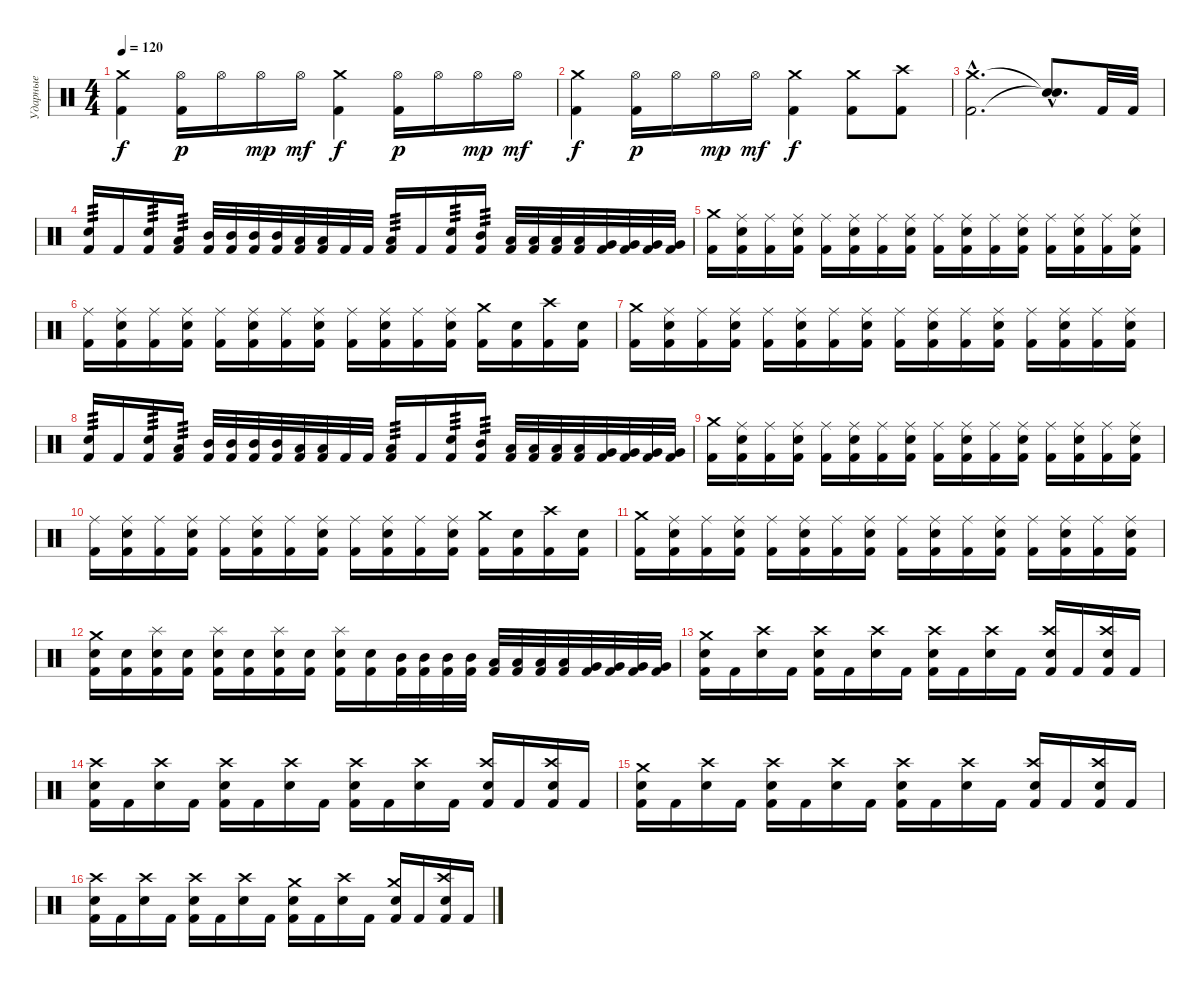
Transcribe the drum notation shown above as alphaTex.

\track ("Ударные" "Ударные") {instrument percussion}
\staff {score}
\articulation defaults
\ts (4 4)
\tempo 120
\clef neutral
\ks c
("Kick (hit) 2" "Crash medium (hit)").4{dy f} ("Kick (hit) 2" "Hi-Hat (open)").16{dy p} "Hi-Hat (open)".16 "Hi-Hat (open)".16{dy mp} "Hi-Hat (open)".16{dy mf} ("Kick (hit) 2" "Crash medium (hit)").4{dy f} ("Kick (hit) 2" "Hi-Hat (open)").16{dy p} "Hi-Hat (open)".16 "Hi-Hat (open)".16{dy mp} "Hi-Hat (open)".16{dy mf} |
("Kick (hit) 2" "Crash medium (hit)").4{dy f} ("Kick (hit) 2" "Hi-Hat (open)").16{dy p} "Hi-Hat (open)".16 "Hi-Hat (open)".16{dy mp} "Hi-Hat (open)".16{dy mf} ("Kick (hit) 2" "Crash medium (hit)").4{dy f} ("Kick (hit) 2" "Crash medium (hit)").8 ("Kick (hit) 2" "Crash high (hit)").8 |
("Kick (hit) 2"{hac} "Crash medium (hit)"{hac}).2{d} ("Snare (hit)"{hac t} "Snare (hit)"{hac t}).8{d} "Kick (hit) 2".32 "Kick (hit) 2".32 |
("Kick (hit) 2" "Electric Snare (hit)").16{tp 3} "Kick (hit) 2".16 ("Kick (hit) 2" "Electric Snare (hit)").16{tp 3} ("Kick (hit) 2" "Low Tom (hit)").16{tp 3} ("Kick (hit) 2" "Mid Tom (hit)").32 ("Kick (hit) 2" "Mid Tom (hit)").32 ("Kick (hit) 2" "Mid Tom (hit)").32 ("Kick (hit) 2" "Mid Tom (hit)").32 ("Kick (hit) 2" "Low Tom (hit)").32 ("Kick (hit) 2" "Low Tom (hit)").32 "Kick (hit) 2".32 "Kick (hit) 2".32 ("Kick (hit) 2" "Low Tom (hit)").16{tp 3} "Kick (hit) 2".16 ("Kick (hit) 2" "Electric Snare (hit)").16{tp 3} ("Kick (hit) 2" "Mid Tom (hit)").16{tp 3} ("Kick (hit) 2" "Low Tom (hit)").32 ("Kick (hit) 2" "Low Tom (hit)").32 ("Kick (hit) 2" "Low Tom (hit)").32 ("Kick (hit) 2" "Low Tom (hit)").32 ("Kick (hit) 2" "Very Low Tom (hit)").32 ("Kick (hit) 2" "Very Low Tom (hit)").32 ("Kick (hit) 2" "Very Low Tom (hit)").32 ("Kick (hit) 2" "Very Low Tom (hit)").32 |
("Crash medium (hit)" "Kick (hit) 2").16 ("Ride (middle)" "Electric Snare (hit)" "Kick (hit) 2").16 ("Ride (middle)" "Kick (hit) 2").16 ("Ride (middle)" "Electric Snare (hit)" "Kick (hit) 2").16 ("Ride (middle)" "Kick (hit) 2").16 ("Ride (middle)" "Electric Snare (hit)" "Kick (hit) 2").16 ("Ride (middle)" "Kick (hit) 2").16 ("Ride (middle)" "Electric Snare (hit)" "Kick (hit) 2").16 ("Ride (middle)" "Kick (hit) 2").16 ("Ride (middle)" "Electric Snare (hit)" "Kick (hit) 2").16 ("Ride (middle)" "Kick (hit) 2").16 ("Ride (middle)" "Electric Snare (hit)" "Kick (hit) 2").16 ("Ride (middle)" "Kick (hit) 2").16 ("Ride (middle)" "Electric Snare (hit)" "Kick (hit) 2").16 ("Ride (middle)" "Kick (hit) 2").16 ("Ride (middle)" "Electric Snare (hit)" "Kick (hit) 2").16 |
("Ride (middle)" "Kick (hit) 2").16 ("Ride (middle)" "Electric Snare (hit)" "Kick (hit) 2").16 ("Ride (middle)" "Kick (hit) 2").16 ("Ride (middle)" "Electric Snare (hit)" "Kick (hit) 2").16 ("Ride (middle)" "Kick (hit) 2").16 ("Ride (middle)" "Electric Snare (hit)" "Kick (hit) 2").16 ("Ride (middle)" "Kick (hit) 2").16 ("Ride (middle)" "Electric Snare (hit)" "Kick (hit) 2").16 ("Ride (middle)" "Kick (hit) 2").16 ("Ride (middle)" "Electric Snare (hit)" "Kick (hit) 2").16 ("Ride (middle)" "Kick (hit) 2").16 ("Ride (middle)" "Electric Snare (hit)" "Kick (hit) 2").16 ("Crash medium (hit)" "Kick (hit) 2").16 ("Electric Snare (hit)" "Kick (hit) 2").16 ("Crash high (hit)" "Kick (hit) 2").16 ("Electric Snare (hit)" "Kick (hit) 2").16 |
("Crash medium (hit)" "Kick (hit) 2").16 ("Ride (middle)" "Electric Snare (hit)" "Kick (hit) 2").16 ("Ride (middle)" "Kick (hit) 2").16 ("Ride (middle)" "Electric Snare (hit)" "Kick (hit) 2").16 ("Ride (middle)" "Kick (hit) 2").16 ("Ride (middle)" "Electric Snare (hit)" "Kick (hit) 2").16 ("Ride (middle)" "Kick (hit) 2").16 ("Ride (middle)" "Electric Snare (hit)" "Kick (hit) 2").16 ("Ride (middle)" "Kick (hit) 2").16 ("Ride (middle)" "Electric Snare (hit)" "Kick (hit) 2").16 ("Ride (middle)" "Kick (hit) 2").16 ("Ride (middle)" "Electric Snare (hit)" "Kick (hit) 2").16 ("Ride (middle)" "Kick (hit) 2").16 ("Ride (middle)" "Electric Snare (hit)" "Kick (hit) 2").16 ("Ride (middle)" "Kick (hit) 2").16 ("Ride (middle)" "Electric Snare (hit)" "Kick (hit) 2").16 |
("Kick (hit) 2" "Electric Snare (hit)").16{tp 3} "Kick (hit) 2".16 ("Kick (hit) 2" "Electric Snare (hit)").16{tp 3} ("Kick (hit) 2" "Low Tom (hit)").16{tp 3} ("Kick (hit) 2" "Mid Tom (hit)").32 ("Kick (hit) 2" "Mid Tom (hit)").32 ("Kick (hit) 2" "Mid Tom (hit)").32 ("Kick (hit) 2" "Mid Tom (hit)").32 ("Kick (hit) 2" "Low Tom (hit)").32 ("Kick (hit) 2" "Low Tom (hit)").32 "Kick (hit) 2".32 "Kick (hit) 2".32 ("Kick (hit) 2" "Low Tom (hit)").16{tp 3} "Kick (hit) 2".16 ("Kick (hit) 2" "Electric Snare (hit)").16{tp 3} ("Kick (hit) 2" "Mid Tom (hit)").16{tp 3} ("Kick (hit) 2" "Low Tom (hit)").32 ("Kick (hit) 2" "Low Tom (hit)").32 ("Kick (hit) 2" "Low Tom (hit)").32 ("Kick (hit) 2" "Low Tom (hit)").32 ("Kick (hit) 2" "Very Low Tom (hit)").32 ("Kick (hit) 2" "Very Low Tom (hit)").32 ("Kick (hit) 2" "Very Low Tom (hit)").32 ("Kick (hit) 2" "Very Low Tom (hit)").32 |
("Crash medium (hit)" "Kick (hit) 2").16 ("Ride (middle)" "Electric Snare (hit)" "Kick (hit) 2").16 ("Ride (middle)" "Kick (hit) 2").16 ("Ride (middle)" "Electric Snare (hit)" "Kick (hit) 2").16 ("Ride (middle)" "Kick (hit) 2").16 ("Ride (middle)" "Electric Snare (hit)" "Kick (hit) 2").16 ("Ride (middle)" "Kick (hit) 2").16 ("Ride (middle)" "Electric Snare (hit)" "Kick (hit) 2").16 ("Ride (middle)" "Kick (hit) 2").16 ("Ride (middle)" "Electric Snare (hit)" "Kick (hit) 2").16 ("Ride (middle)" "Kick (hit) 2").16 ("Ride (middle)" "Electric Snare (hit)" "Kick (hit) 2").16 ("Ride (middle)" "Kick (hit) 2").16 ("Ride (middle)" "Electric Snare (hit)" "Kick (hit) 2").16 ("Ride (middle)" "Kick (hit) 2").16 ("Ride (middle)" "Electric Snare (hit)" "Kick (hit) 2").16 |
("Ride (middle)" "Kick (hit) 2").16 ("Ride (middle)" "Electric Snare (hit)" "Kick (hit) 2").16 ("Ride (middle)" "Kick (hit) 2").16 ("Ride (middle)" "Electric Snare (hit)" "Kick (hit) 2").16 ("Ride (middle)" "Kick (hit) 2").16 ("Ride (middle)" "Electric Snare (hit)" "Kick (hit) 2").16 ("Ride (middle)" "Kick (hit) 2").16 ("Ride (middle)" "Electric Snare (hit)" "Kick (hit) 2").16 ("Ride (middle)" "Kick (hit) 2").16 ("Ride (middle)" "Electric Snare (hit)" "Kick (hit) 2").16 ("Ride (middle)" "Kick (hit) 2").16 ("Ride (middle)" "Electric Snare (hit)" "Kick (hit) 2").16 ("Crash medium (hit)" "Kick (hit) 2").16 ("Electric Snare (hit)" "Kick (hit) 2").16 ("Crash high (hit)" "Kick (hit) 2").16 ("Electric Snare (hit)" "Kick (hit) 2").16 |
("Crash medium (hit)" "Kick (hit) 2").16 ("Ride (middle)" "Electric Snare (hit)" "Kick (hit) 2").16 ("Ride (middle)" "Kick (hit) 2").16 ("Ride (middle)" "Electric Snare (hit)" "Kick (hit) 2").16 ("Ride (middle)" "Kick (hit) 2").16 ("Ride (middle)" "Electric Snare (hit)" "Kick (hit) 2").16 ("Ride (middle)" "Kick (hit) 2").16 ("Ride (middle)" "Electric Snare (hit)" "Kick (hit) 2").16 ("Ride (middle)" "Kick (hit) 2").16 ("Ride (middle)" "Electric Snare (hit)" "Kick (hit) 2").16 ("Ride (middle)" "Kick (hit) 2").16 ("Ride (middle)" "Electric Snare (hit)" "Kick (hit) 2").16 ("Ride (middle)" "Kick (hit) 2").16 ("Ride (middle)" "Electric Snare (hit)" "Kick (hit) 2").16 ("Ride (middle)" "Kick (hit) 2").16 ("Ride (middle)" "Electric Snare (hit)" "Kick (hit) 2").16 |
("Crash medium (hit)" "Electric Snare (hit)" "Kick (hit) 2").16 ("Electric Snare (hit)" "Kick (hit) 2").16 ("Splash (hit)" "Electric Snare (hit)" "Kick (hit) 2").16 ("Electric Snare (hit)" "Kick (hit) 2").16 ("Splash (hit)" "Electric Snare (hit)" "Kick (hit) 2").16 ("Electric Snare (hit)" "Kick (hit) 2").16 ("Splash (hit)" "Electric Snare (hit)" "Kick (hit) 2").16 ("Electric Snare (hit)" "Kick (hit) 2").16 ("Splash (hit)" "Electric Snare (hit)" "Kick (hit) 2").16 ("Electric Snare (hit)" "Kick (hit) 2").16 ("Mid Tom (hit)" "Kick (hit) 2").32 ("Mid Tom (hit)" "Kick (hit) 2").32 ("Mid Tom (hit)" "Kick (hit) 2").32 ("Mid Tom (hit)" "Kick (hit) 2").32 ("Low Tom (hit)" "Kick (hit) 2").32 ("Low Tom (hit)" "Kick (hit) 2").32 ("Low Tom (hit)" "Kick (hit) 2").32 ("Low Tom (hit)" "Kick (hit) 2").32 ("Very Low Tom (hit)" "Kick (hit) 2").32 ("Very Low Tom (hit)" "Kick (hit) 2").32 ("Very Low Tom (hit)" "Kick (hit) 2").32 ("Very Low Tom (hit)" "Kick (hit) 2").32 |
("Kick (hit) 2" "Electric Snare (hit)" "Crash medium (hit)").16 "Kick (hit) 2".16 ("Electric Snare (hit)" "Crash high (hit)").16 "Kick (hit) 2".16 ("Kick (hit) 2" "Electric Snare (hit)" "Crash high (hit)").16 "Kick (hit) 2".16 ("Electric Snare (hit)" "Crash high (hit)").16 "Kick (hit) 2".16 ("Kick (hit) 2" "Electric Snare (hit)" "Crash high (hit)").16 "Kick (hit) 2".16 ("Electric Snare (hit)" "Crash high (hit)").16 "Kick (hit) 2".16 ("Kick (hit) 2" "Electric Snare (hit)" "Crash high (hit)").16 "Kick (hit) 2".16 ("Kick (hit) 2" "Electric Snare (hit)" "Crash high (hit)").16 "Kick (hit) 2".16 |
("Kick (hit) 2" "Electric Snare (hit)" "Crash high (hit)").16 "Kick (hit) 2".16 ("Electric Snare (hit)" "Crash high (hit)").16 "Kick (hit) 2".16 ("Kick (hit) 2" "Electric Snare (hit)" "Crash high (hit)").16 "Kick (hit) 2".16 ("Electric Snare (hit)" "Crash high (hit)").16 "Kick (hit) 2".16 ("Kick (hit) 2" "Electric Snare (hit)" "Crash high (hit)").16 "Kick (hit) 2".16 ("Electric Snare (hit)" "Crash high (hit)").16 "Kick (hit) 2".16 ("Kick (hit) 2" "Electric Snare (hit)" "Crash high (hit)").16 "Kick (hit) 2".16 ("Kick (hit) 2" "Electric Snare (hit)" "Crash high (hit)").16 "Kick (hit) 2".16 |
("Kick (hit) 2" "Electric Snare (hit)" "Crash medium (hit)").16 "Kick (hit) 2".16 ("Electric Snare (hit)" "Crash high (hit)").16 "Kick (hit) 2".16 ("Kick (hit) 2" "Electric Snare (hit)" "Crash high (hit)").16 "Kick (hit) 2".16 ("Electric Snare (hit)" "Crash high (hit)").16 "Kick (hit) 2".16 ("Kick (hit) 2" "Electric Snare (hit)" "Crash high (hit)").16 "Kick (hit) 2".16 ("Electric Snare (hit)" "Crash high (hit)").16 "Kick (hit) 2".16 ("Kick (hit) 2" "Electric Snare (hit)" "Crash high (hit)").16 "Kick (hit) 2".16 ("Kick (hit) 2" "Electric Snare (hit)" "Crash high (hit)").16 "Kick (hit) 2".16 |
("Kick (hit) 2" "Electric Snare (hit)" "Crash high (hit)").16 "Kick (hit) 2".16 ("Electric Snare (hit)" "Crash high (hit)").16 "Kick (hit) 2".16 ("Kick (hit) 2" "Electric Snare (hit)" "Crash high (hit)").16 "Kick (hit) 2".16 ("Electric Snare (hit)" "Crash high (hit)").16 "Kick (hit) 2".16 ("Kick (hit) 2" "Electric Snare (hit)" "Crash medium (hit)").16 "Kick (hit) 2".16 ("Electric Snare (hit)" "Crash high (hit)").16 "Kick (hit) 2".16 ("Kick (hit) 2" "Electric Snare (hit)" "Crash medium (hit)").16 "Kick (hit) 2".16 ("Kick (hit) 2" "Electric Snare (hit)" "Crash high (hit)").16 "Kick (hit) 2".16
